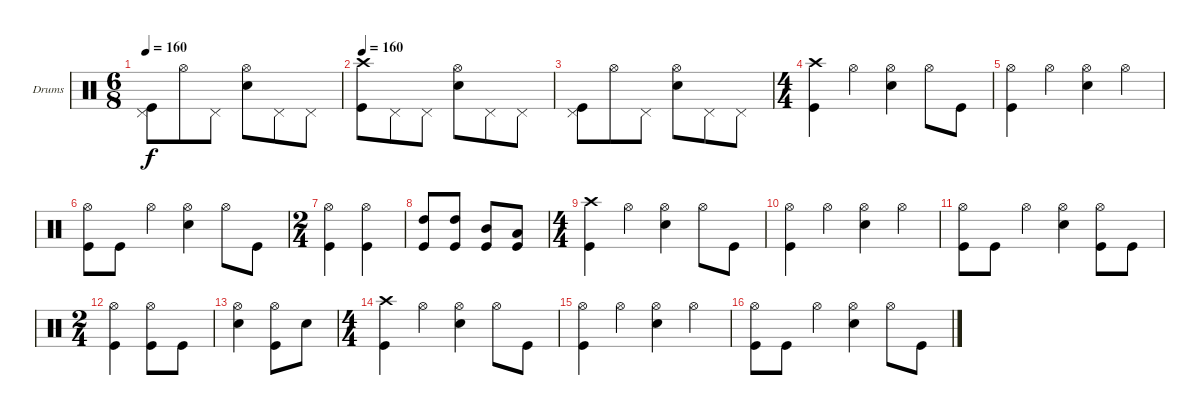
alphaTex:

\bracketExtendMode groupsimilarinstruments
\firstSystemTrackNameOrientation horizontal
\otherSystemsTrackNameOrientation horizontal
\track ("Drumkit" "Drums") {instrument percussion}
\staff {score}
\articulation defaults
\ts (6 8)
\tempo 160
\clef neutral
\ks c
("Pedal Hi-Hat (hit)" "Kick (hit)").8{dy f} "Hi-Hat (open)".8 "Pedal Hi-Hat (hit)".8 ("Hi-Hat (open)" "Snare (hit) 2").8 "Pedal Hi-Hat (hit)".8 "Pedal Hi-Hat (hit)".8 |
\tempo 160
("Crash high (hit)" "Kick (hit)").8 "Pedal Hi-Hat (hit)".8 "Pedal Hi-Hat (hit)".8 ("Hi-Hat (open)" "Snare (hit) 2").8 "Pedal Hi-Hat (hit)".8 "Pedal Hi-Hat (hit)".8 |
("Pedal Hi-Hat (hit)" "Kick (hit)").8 "Hi-Hat (open)".8 "Pedal Hi-Hat (hit)".8 ("Hi-Hat (open)" "Snare (hit) 2").8 "Pedal Hi-Hat (hit)".8 "Pedal Hi-Hat (hit)".8 |
\ts (4 4)
\beaming (8 2 2 2 2)
("Crash high (hit)" "Kick (hit)").4 "Hi-Hat (open)".4 ("Hi-Hat (open)" "Snare (hit) 2").4 "Hi-Hat (open)".8 "Kick (hit)".8 |
("Hi-Hat (open)" "Kick (hit)").4 "Hi-Hat (open)".4 ("Hi-Hat (open)" "Snare (hit) 2").4 "Hi-Hat (open)".4 |
("Hi-Hat (open)" "Kick (hit)").8 "Kick (hit)".8 "Hi-Hat (open)".4 ("Hi-Hat (open)" "Snare (hit) 2").4 "Hi-Hat (open)".8 "Kick (hit)".8 |
\ts (2 4)
\beaming (8 2 2)
("Hi-Hat (open)" "Kick (hit)").4 ("Hi-Hat (open)" "Kick (hit)").4 |
("High Tom (hit)" "Kick (hit)").8 ("High Tom (hit)" "Kick (hit)").8 ("Mid Tom (hit)" "Kick (hit)").8 ("Low Tom (hit)" "Kick (hit)").8 |
\ts (4 4)
\beaming (8 2 2 2 2)
("Crash high (hit)" "Kick (hit)").4 "Hi-Hat (open)".4 ("Hi-Hat (open)" "Snare (hit) 2").4 "Hi-Hat (open)".8 "Kick (hit)".8 |
("Hi-Hat (open)" "Kick (hit)").4 "Hi-Hat (open)".4 ("Hi-Hat (open)" "Snare (hit) 2").4 "Hi-Hat (open)".4 |
("Hi-Hat (open)" "Kick (hit)").8 "Kick (hit)".8 "Hi-Hat (open)".4 ("Hi-Hat (open)" "Snare (hit) 2").4 ("Hi-Hat (open)" "Kick (hit)").8 "Kick (hit)".8 |
\ts (2 4)
\beaming (8 2 2)
("Hi-Hat (open)" "Kick (hit)").4 ("Hi-Hat (open)" "Kick (hit)").8 "Kick (hit)".8 |
("Hi-Hat (open)" "Snare (hit) 2").4 ("Hi-Hat (open)" "Kick (hit)").8 "Snare (hit) 2".8 |
\ts (4 4)
\beaming (8 2 2 2 2)
("Crash high (hit)" "Kick (hit)").4 "Hi-Hat (open)".4 ("Hi-Hat (open)" "Snare (hit) 2").4 "Hi-Hat (open)".8 "Kick (hit)".8 |
("Hi-Hat (open)" "Kick (hit)").4 "Hi-Hat (open)".4 ("Hi-Hat (open)" "Snare (hit) 2").4 "Hi-Hat (open)".4 |
("Hi-Hat (open)" "Kick (hit)").8 "Kick (hit)".8 "Hi-Hat (open)".4 ("Hi-Hat (open)" "Snare (hit) 2").4 "Hi-Hat (open)".8 "Kick (hit)".8
